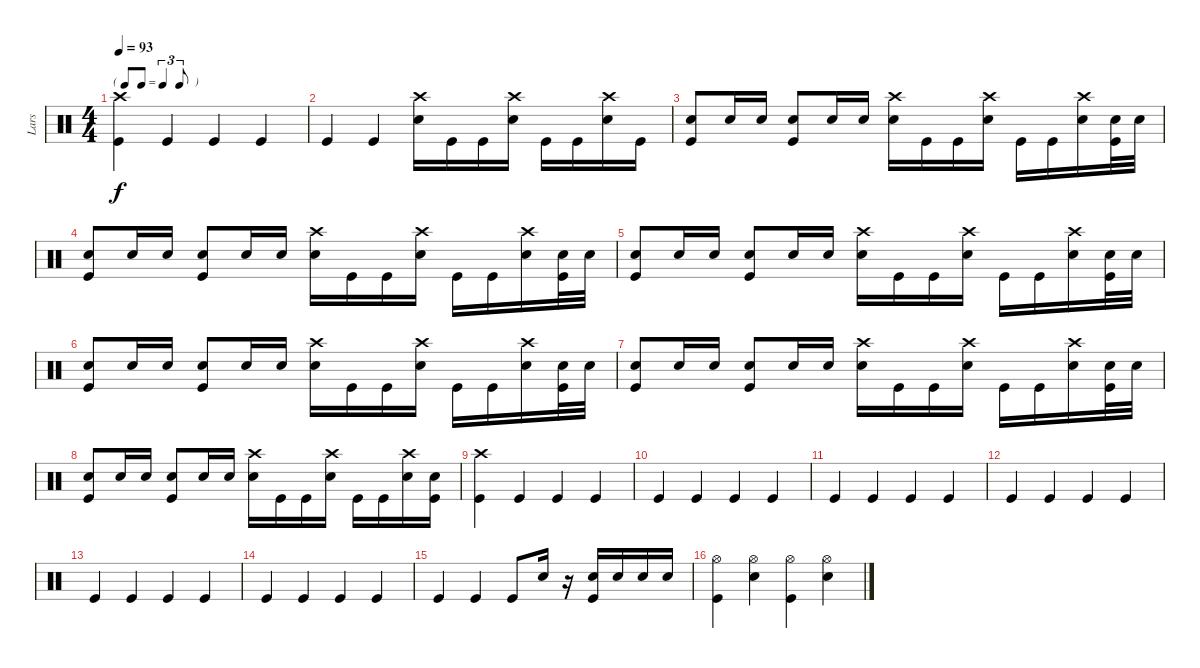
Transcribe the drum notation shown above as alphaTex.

\track ("Lars" "Lars") {instrument percussion}
\staff {score}
\articulation defaults
\ts (4 4)
\tf triplet8th
\tempo 93
\clef neutral
\ks c
("Crash high (hit)" "Kick (hit)").4{dy f} "Kick (hit)".4 "Kick (hit)".4 "Kick (hit)".4 |
"Kick (hit)".4 "Kick (hit)".4 ("Crash high (hit)" "Snare (hit) 2").16 "Kick (hit)".16 "Kick (hit)".16 ("Crash high (hit)" "Snare (hit) 2").16 "Kick (hit)".16 "Kick (hit)".16 ("Crash high (hit)" "Snare (hit) 2").16 "Kick (hit)".16 |
("Snare (hit) 2" "Kick (hit)").8 "Snare (hit) 2".16 "Snare (hit) 2".16 ("Snare (hit) 2" "Kick (hit)").8 "Snare (hit) 2".16 "Snare (hit) 2".16 ("Crash high (hit)" "Snare (hit) 2").16 "Kick (hit)".16 "Kick (hit)".16 ("Crash high (hit)" "Snare (hit) 2").16 "Kick (hit)".16 "Kick (hit)".16 ("Crash high (hit)" "Snare (hit) 2").16 ("Snare (hit) 2" "Kick (hit)").32 "Snare (hit) 2".32 |
("Snare (hit) 2" "Kick (hit)").8 "Snare (hit) 2".16 "Snare (hit) 2".16 ("Snare (hit) 2" "Kick (hit)").8 "Snare (hit) 2".16 "Snare (hit) 2".16 ("Crash high (hit)" "Snare (hit) 2").16 "Kick (hit)".16 "Kick (hit)".16 ("Crash high (hit)" "Snare (hit) 2").16 "Kick (hit)".16 "Kick (hit)".16 ("Crash high (hit)" "Snare (hit) 2").16 ("Snare (hit) 2" "Kick (hit)").32 "Snare (hit) 2".32 |
("Snare (hit) 2" "Kick (hit)").8 "Snare (hit) 2".16 "Snare (hit) 2".16 ("Snare (hit) 2" "Kick (hit)").8 "Snare (hit) 2".16 "Snare (hit) 2".16 ("Crash high (hit)" "Snare (hit) 2").16 "Kick (hit)".16 "Kick (hit)".16 ("Crash high (hit)" "Snare (hit) 2").16 "Kick (hit)".16 "Kick (hit)".16 ("Crash high (hit)" "Snare (hit) 2").16 ("Snare (hit) 2" "Kick (hit)").32 "Snare (hit) 2".32 |
("Snare (hit) 2" "Kick (hit)").8 "Snare (hit) 2".16 "Snare (hit) 2".16 ("Snare (hit) 2" "Kick (hit)").8 "Snare (hit) 2".16 "Snare (hit) 2".16 ("Crash high (hit)" "Snare (hit) 2").16 "Kick (hit)".16 "Kick (hit)".16 ("Crash high (hit)" "Snare (hit) 2").16 "Kick (hit)".16 "Kick (hit)".16 ("Crash high (hit)" "Snare (hit) 2").16 ("Snare (hit) 2" "Kick (hit)").32 "Snare (hit) 2".32 |
("Snare (hit) 2" "Kick (hit)").8 "Snare (hit) 2".16 "Snare (hit) 2".16 ("Snare (hit) 2" "Kick (hit)").8 "Snare (hit) 2".16 "Snare (hit) 2".16 ("Crash high (hit)" "Snare (hit) 2").16 "Kick (hit)".16 "Kick (hit)".16 ("Crash high (hit)" "Snare (hit) 2").16 "Kick (hit)".16 "Kick (hit)".16 ("Crash high (hit)" "Snare (hit) 2").16 ("Snare (hit) 2" "Kick (hit)").32 "Snare (hit) 2".32 |
("Snare (hit) 2" "Kick (hit)").8 "Snare (hit) 2".16 "Snare (hit) 2".16 ("Snare (hit) 2" "Kick (hit)").8 "Snare (hit) 2".16 "Snare (hit) 2".16 ("Crash high (hit)" "Snare (hit) 2").16 "Kick (hit)".16 "Kick (hit)".16 ("Crash high (hit)" "Snare (hit) 2").16 "Kick (hit)".16 "Kick (hit)".16 ("Crash high (hit)" "Snare (hit) 2").16 ("Snare (hit) 2" "Kick (hit)").16 |
("Crash high (hit)" "Kick (hit)").4 "Kick (hit)".4 "Kick (hit)".4 "Kick (hit)".4 |
"Kick (hit)".4 "Kick (hit)".4 "Kick (hit)".4 "Kick (hit)".4 |
"Kick (hit)".4 "Kick (hit)".4 "Kick (hit)".4 "Kick (hit)".4 |
"Kick (hit)".4 "Kick (hit)".4 "Kick (hit)".4 "Kick (hit)".4 |
"Kick (hit)".4 "Kick (hit)".4 "Kick (hit)".4 "Kick (hit)".4 |
"Kick (hit)".4 "Kick (hit)".4 "Kick (hit)".4 "Kick (hit)".4 |
"Kick (hit)".4 "Kick (hit)".4 "Kick (hit)".8 "Snare (hit) 2".16 r.16 ("Snare (hit) 2" "Kick (hit)").16 "Snare (hit) 2".16 "Snare (hit) 2".16 "Snare (hit) 2".16 |
("Hi-Hat (open)" "Kick (hit)").4 ("Hi-Hat (open)" "Snare (hit) 2").4 ("Hi-Hat (open)" "Kick (hit)").4 ("Hi-Hat (open)" "Snare (hit) 2").4
